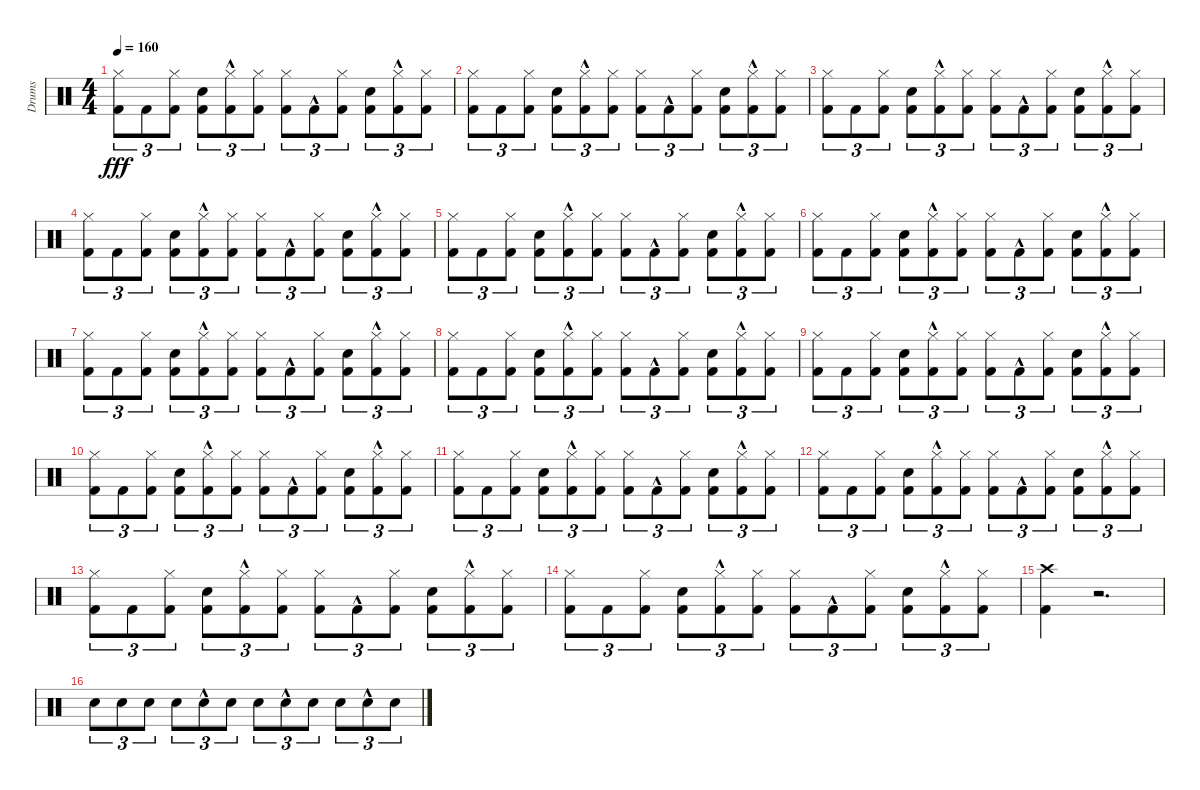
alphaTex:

\track ("Drums" "Drums") {instrument percussion}
\staff {score}
\articulation defaults
\ts (4 4)
\tempo 160
\clef neutral
\ks c
("Kick (hit) 2" "Hi-Hat (closed)").8{tu (3 2) dy fff} "Kick (hit) 2".8{tu (3 2)} ("Kick (hit) 2" "Hi-Hat (closed)").8{tu (3 2)} ("Kick (hit) 2" "Snare (hit) 2").8{tu (3 2)} ("Kick (hit) 2"{hac} "Hi-Hat (closed)"{hac}).8{tu (3 2)} ("Kick (hit) 2" "Hi-Hat (closed)").8{tu (3 2)} ("Kick (hit) 2" "Hi-Hat (closed)").8{tu (3 2)} "Kick (hit) 2"{hac}.8{tu (3 2)} ("Kick (hit) 2" "Hi-Hat (closed)").8{tu (3 2)} ("Kick (hit) 2" "Snare (hit) 2").8{tu (3 2)} ("Kick (hit) 2"{hac} "Hi-Hat (closed)"{hac}).8{tu (3 2)} ("Kick (hit) 2" "Hi-Hat (closed)").8{tu (3 2)} |
("Kick (hit) 2" "Hi-Hat (closed)").8{tu (3 2)} "Kick (hit) 2".8{tu (3 2)} ("Kick (hit) 2" "Hi-Hat (closed)").8{tu (3 2)} ("Kick (hit) 2" "Snare (hit) 2").8{tu (3 2)} ("Kick (hit) 2"{hac} "Hi-Hat (closed)"{hac}).8{tu (3 2)} ("Kick (hit) 2" "Hi-Hat (closed)").8{tu (3 2)} ("Kick (hit) 2" "Hi-Hat (closed)").8{tu (3 2)} "Kick (hit) 2"{hac}.8{tu (3 2)} ("Kick (hit) 2" "Hi-Hat (closed)").8{tu (3 2)} ("Kick (hit) 2" "Snare (hit) 2").8{tu (3 2)} ("Kick (hit) 2"{hac} "Hi-Hat (closed)"{hac}).8{tu (3 2)} ("Kick (hit) 2" "Hi-Hat (closed)").8{tu (3 2)} |
("Kick (hit) 2" "Hi-Hat (closed)").8{tu (3 2)} "Kick (hit) 2".8{tu (3 2)} ("Kick (hit) 2" "Hi-Hat (closed)").8{tu (3 2)} ("Kick (hit) 2" "Snare (hit) 2").8{tu (3 2)} ("Kick (hit) 2"{hac} "Hi-Hat (closed)"{hac}).8{tu (3 2)} ("Kick (hit) 2" "Hi-Hat (closed)").8{tu (3 2)} ("Kick (hit) 2" "Hi-Hat (closed)").8{tu (3 2)} "Kick (hit) 2"{hac}.8{tu (3 2)} ("Kick (hit) 2" "Hi-Hat (closed)").8{tu (3 2)} ("Kick (hit) 2" "Snare (hit) 2").8{tu (3 2)} ("Kick (hit) 2"{hac} "Hi-Hat (closed)"{hac}).8{tu (3 2)} ("Kick (hit) 2" "Hi-Hat (closed)").8{tu (3 2)} |
("Kick (hit) 2" "Hi-Hat (closed)").8{tu (3 2)} "Kick (hit) 2".8{tu (3 2)} ("Kick (hit) 2" "Hi-Hat (closed)").8{tu (3 2)} ("Kick (hit) 2" "Snare (hit) 2").8{tu (3 2)} ("Kick (hit) 2"{hac} "Hi-Hat (closed)"{hac}).8{tu (3 2)} ("Kick (hit) 2" "Hi-Hat (closed)").8{tu (3 2)} ("Kick (hit) 2" "Hi-Hat (closed)").8{tu (3 2)} "Kick (hit) 2"{hac}.8{tu (3 2)} ("Kick (hit) 2" "Hi-Hat (closed)").8{tu (3 2)} ("Kick (hit) 2" "Snare (hit) 2").8{tu (3 2)} ("Kick (hit) 2"{hac} "Hi-Hat (closed)"{hac}).8{tu (3 2)} ("Kick (hit) 2" "Hi-Hat (closed)").8{tu (3 2)} |
("Kick (hit) 2" "Hi-Hat (closed)").8{tu (3 2)} "Kick (hit) 2".8{tu (3 2)} ("Kick (hit) 2" "Hi-Hat (closed)").8{tu (3 2)} ("Kick (hit) 2" "Snare (hit) 2").8{tu (3 2)} ("Kick (hit) 2"{hac} "Hi-Hat (closed)"{hac}).8{tu (3 2)} ("Kick (hit) 2" "Hi-Hat (closed)").8{tu (3 2)} ("Kick (hit) 2" "Hi-Hat (closed)").8{tu (3 2)} "Kick (hit) 2"{hac}.8{tu (3 2)} ("Kick (hit) 2" "Hi-Hat (closed)").8{tu (3 2)} ("Kick (hit) 2" "Snare (hit) 2").8{tu (3 2)} ("Kick (hit) 2"{hac} "Hi-Hat (closed)"{hac}).8{tu (3 2)} ("Kick (hit) 2" "Hi-Hat (closed)").8{tu (3 2)} |
("Kick (hit) 2" "Hi-Hat (closed)").8{tu (3 2)} "Kick (hit) 2".8{tu (3 2)} ("Kick (hit) 2" "Hi-Hat (closed)").8{tu (3 2)} ("Kick (hit) 2" "Snare (hit) 2").8{tu (3 2)} ("Kick (hit) 2"{hac} "Hi-Hat (closed)"{hac}).8{tu (3 2)} ("Kick (hit) 2" "Hi-Hat (closed)").8{tu (3 2)} ("Kick (hit) 2" "Hi-Hat (closed)").8{tu (3 2)} "Kick (hit) 2"{hac}.8{tu (3 2)} ("Kick (hit) 2" "Hi-Hat (closed)").8{tu (3 2)} ("Kick (hit) 2" "Snare (hit) 2").8{tu (3 2)} ("Kick (hit) 2"{hac} "Hi-Hat (closed)"{hac}).8{tu (3 2)} ("Kick (hit) 2" "Hi-Hat (closed)").8{tu (3 2)} |
("Kick (hit) 2" "Hi-Hat (closed)").8{tu (3 2)} "Kick (hit) 2".8{tu (3 2)} ("Kick (hit) 2" "Hi-Hat (closed)").8{tu (3 2)} ("Kick (hit) 2" "Snare (hit) 2").8{tu (3 2)} ("Kick (hit) 2"{hac} "Hi-Hat (closed)"{hac}).8{tu (3 2)} ("Kick (hit) 2" "Hi-Hat (closed)").8{tu (3 2)} ("Kick (hit) 2" "Hi-Hat (closed)").8{tu (3 2)} "Kick (hit) 2"{hac}.8{tu (3 2)} ("Kick (hit) 2" "Hi-Hat (closed)").8{tu (3 2)} ("Kick (hit) 2" "Snare (hit) 2").8{tu (3 2)} ("Kick (hit) 2"{hac} "Hi-Hat (closed)"{hac}).8{tu (3 2)} ("Kick (hit) 2" "Hi-Hat (closed)").8{tu (3 2)} |
("Kick (hit) 2" "Hi-Hat (closed)").8{tu (3 2)} "Kick (hit) 2".8{tu (3 2)} ("Kick (hit) 2" "Hi-Hat (closed)").8{tu (3 2)} ("Kick (hit) 2" "Snare (hit) 2").8{tu (3 2)} ("Kick (hit) 2"{hac} "Hi-Hat (closed)"{hac}).8{tu (3 2)} ("Kick (hit) 2" "Hi-Hat (closed)").8{tu (3 2)} ("Kick (hit) 2" "Hi-Hat (closed)").8{tu (3 2)} "Kick (hit) 2"{hac}.8{tu (3 2)} ("Kick (hit) 2" "Hi-Hat (closed)").8{tu (3 2)} ("Kick (hit) 2" "Snare (hit) 2").8{tu (3 2)} ("Kick (hit) 2"{hac} "Hi-Hat (closed)"{hac}).8{tu (3 2)} ("Kick (hit) 2" "Hi-Hat (closed)").8{tu (3 2)} |
("Kick (hit) 2" "Hi-Hat (closed)").8{tu (3 2)} "Kick (hit) 2".8{tu (3 2)} ("Kick (hit) 2" "Hi-Hat (closed)").8{tu (3 2)} ("Kick (hit) 2" "Snare (hit) 2").8{tu (3 2)} ("Kick (hit) 2"{hac} "Hi-Hat (closed)"{hac}).8{tu (3 2)} ("Kick (hit) 2" "Hi-Hat (closed)").8{tu (3 2)} ("Kick (hit) 2" "Hi-Hat (closed)").8{tu (3 2)} "Kick (hit) 2"{hac}.8{tu (3 2)} ("Kick (hit) 2" "Hi-Hat (closed)").8{tu (3 2)} ("Kick (hit) 2" "Snare (hit) 2").8{tu (3 2)} ("Kick (hit) 2"{hac} "Hi-Hat (closed)"{hac}).8{tu (3 2)} ("Kick (hit) 2" "Hi-Hat (closed)").8{tu (3 2)} |
("Kick (hit) 2" "Hi-Hat (closed)").8{tu (3 2)} "Kick (hit) 2".8{tu (3 2)} ("Kick (hit) 2" "Hi-Hat (closed)").8{tu (3 2)} ("Kick (hit) 2" "Snare (hit) 2").8{tu (3 2)} ("Kick (hit) 2"{hac} "Hi-Hat (closed)"{hac}).8{tu (3 2)} ("Kick (hit) 2" "Hi-Hat (closed)").8{tu (3 2)} ("Kick (hit) 2" "Hi-Hat (closed)").8{tu (3 2)} "Kick (hit) 2"{hac}.8{tu (3 2)} ("Kick (hit) 2" "Hi-Hat (closed)").8{tu (3 2)} ("Kick (hit) 2" "Snare (hit) 2").8{tu (3 2)} ("Kick (hit) 2"{hac} "Hi-Hat (closed)"{hac}).8{tu (3 2)} ("Kick (hit) 2" "Hi-Hat (closed)").8{tu (3 2)} |
("Kick (hit) 2" "Hi-Hat (closed)").8{tu (3 2)} "Kick (hit) 2".8{tu (3 2)} ("Kick (hit) 2" "Hi-Hat (closed)").8{tu (3 2)} ("Kick (hit) 2" "Snare (hit) 2").8{tu (3 2)} ("Kick (hit) 2"{hac} "Hi-Hat (closed)"{hac}).8{tu (3 2)} ("Kick (hit) 2" "Hi-Hat (closed)").8{tu (3 2)} ("Kick (hit) 2" "Hi-Hat (closed)").8{tu (3 2)} "Kick (hit) 2"{hac}.8{tu (3 2)} ("Kick (hit) 2" "Hi-Hat (closed)").8{tu (3 2)} ("Kick (hit) 2" "Snare (hit) 2").8{tu (3 2)} ("Kick (hit) 2"{hac} "Hi-Hat (closed)"{hac}).8{tu (3 2)} ("Kick (hit) 2" "Hi-Hat (closed)").8{tu (3 2)} |
("Kick (hit) 2" "Hi-Hat (closed)").8{tu (3 2)} "Kick (hit) 2".8{tu (3 2)} ("Kick (hit) 2" "Hi-Hat (closed)").8{tu (3 2)} ("Kick (hit) 2" "Snare (hit) 2").8{tu (3 2)} ("Kick (hit) 2"{hac} "Hi-Hat (closed)"{hac}).8{tu (3 2)} ("Kick (hit) 2" "Hi-Hat (closed)").8{tu (3 2)} ("Kick (hit) 2" "Hi-Hat (closed)").8{tu (3 2)} "Kick (hit) 2"{hac}.8{tu (3 2)} ("Kick (hit) 2" "Hi-Hat (closed)").8{tu (3 2)} ("Kick (hit) 2" "Snare (hit) 2").8{tu (3 2)} ("Kick (hit) 2"{hac} "Hi-Hat (closed)"{hac}).8{tu (3 2)} ("Kick (hit) 2" "Hi-Hat (closed)").8{tu (3 2)} |
("Kick (hit) 2" "Hi-Hat (closed)").8{tu (3 2)} "Kick (hit) 2".8{tu (3 2)} ("Kick (hit) 2" "Hi-Hat (closed)").8{tu (3 2)} ("Kick (hit) 2" "Snare (hit) 2").8{tu (3 2)} ("Kick (hit) 2"{hac} "Hi-Hat (closed)"{hac}).8{tu (3 2)} ("Kick (hit) 2" "Hi-Hat (closed)").8{tu (3 2)} ("Kick (hit) 2" "Hi-Hat (closed)").8{tu (3 2)} "Kick (hit) 2"{hac}.8{tu (3 2)} ("Kick (hit) 2" "Hi-Hat (closed)").8{tu (3 2)} ("Kick (hit) 2" "Snare (hit) 2").8{tu (3 2)} ("Kick (hit) 2"{hac} "Hi-Hat (closed)"{hac}).8{tu (3 2)} ("Kick (hit) 2" "Hi-Hat (closed)").8{tu (3 2)} |
("Kick (hit) 2" "Hi-Hat (closed)").8{tu (3 2)} "Kick (hit) 2".8{tu (3 2)} ("Kick (hit) 2" "Hi-Hat (closed)").8{tu (3 2)} ("Kick (hit) 2" "Snare (hit) 2").8{tu (3 2)} ("Kick (hit) 2"{hac} "Hi-Hat (closed)"{hac}).8{tu (3 2)} ("Kick (hit) 2" "Hi-Hat (closed)").8{tu (3 2)} ("Kick (hit) 2" "Hi-Hat (closed)").8{tu (3 2)} "Kick (hit) 2"{hac}.8{tu (3 2)} ("Kick (hit) 2" "Hi-Hat (closed)").8{tu (3 2)} ("Kick (hit) 2" "Snare (hit) 2").8{tu (3 2)} ("Kick (hit) 2"{hac} "Hi-Hat (closed)"{hac}).8{tu (3 2)} ("Kick (hit) 2" "Hi-Hat (closed)").8{tu (3 2)} |
("Kick (hit) 2" "Crash high (hit)").4 r.2{d} |
"Snare (hit) 2".8{tu (3 2)} "Snare (hit) 2".8{tu (3 2)} "Snare (hit) 2".8{tu (3 2)} "Snare (hit) 2".8{tu (3 2)} "Snare (hit) 2"{hac}.8{tu (3 2)} "Snare (hit) 2".8{tu (3 2)} "Snare (hit) 2".8{tu (3 2)} "Snare (hit) 2"{hac}.8{tu (3 2)} "Snare (hit) 2".8{tu (3 2)} "Snare (hit) 2".8{tu (3 2)} "Snare (hit) 2"{hac}.8{tu (3 2)} "Snare (hit) 2".8{tu (3 2)}
